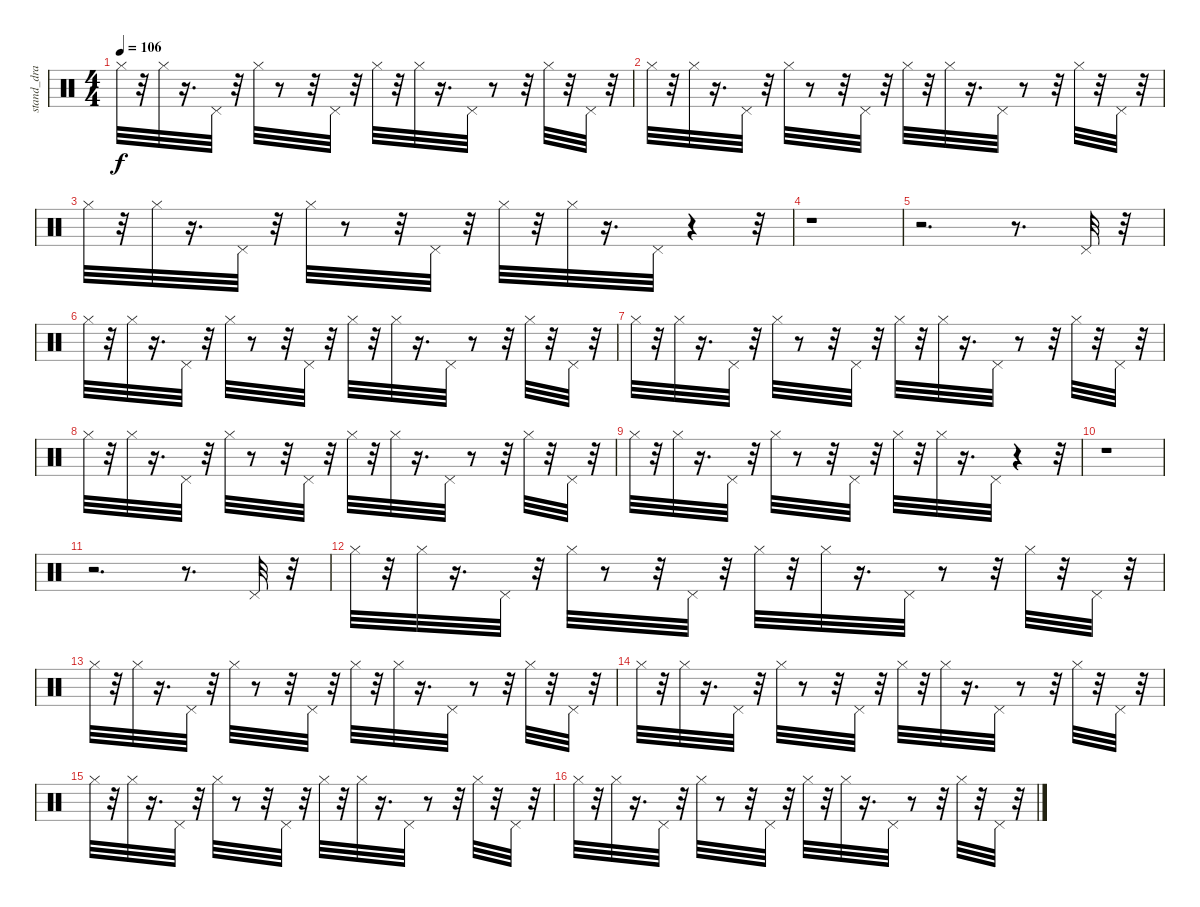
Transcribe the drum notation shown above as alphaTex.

\track ("stand_dra" "stand_dra") {instrument percussion}
\staff {score}
\articulation defaults
\ts (4 4)
\tempo 106
\clef neutral
\ks c "Hi-Hat (closed)".32{dy f}
r.32 "Hi-Hat (closed)".32 r.16{d} "Pedal Hi-Hat (hit)".32 r.32 "Hi-Hat (closed)".32 r.8 r.32 "Pedal Hi-Hat (hit)".32 r.32 "Hi-Hat (closed)".32 r.32 "Hi-Hat (closed)".32 r.16{d} "Pedal Hi-Hat (hit)".32 r.8 r.32 "Hi-Hat (closed)".32 r.32 "Pedal Hi-Hat (hit)".32 r.32 |
"Hi-Hat (closed)".32 r.32 "Hi-Hat (closed)".32 r.16{d} "Pedal Hi-Hat (hit)".32 r.32 "Hi-Hat (closed)".32 r.8 r.32 "Pedal Hi-Hat (hit)".32 r.32 "Hi-Hat (closed)".32 r.32 "Hi-Hat (closed)".32 r.16{d} "Pedal Hi-Hat (hit)".32 r.8 r.32 "Hi-Hat (closed)".32 r.32 "Pedal Hi-Hat (hit)".32 r.32 |
"Hi-Hat (closed)".32 r.32 "Hi-Hat (closed)".32 r.16{d} "Pedal Hi-Hat (hit)".32 r.32 "Hi-Hat (closed)".32 r.8 r.32 "Pedal Hi-Hat (hit)".32 r.32 "Hi-Hat (closed)".32 r.32 "Hi-Hat (closed)".32 r.16{d} "Pedal Hi-Hat (hit)".32 r.4 r.32 |
r.1 |
r.2{d} r.8{d} "Pedal Hi-Hat (hit)".32 r.32 |
"Hi-Hat (closed)".32 r.32 "Hi-Hat (closed)".32 r.16{d} "Pedal Hi-Hat (hit)".32 r.32 "Hi-Hat (closed)".32 r.8 r.32 "Pedal Hi-Hat (hit)".32 r.32 "Hi-Hat (closed)".32 r.32 "Hi-Hat (closed)".32 r.16{d} "Pedal Hi-Hat (hit)".32 r.8 r.32 "Hi-Hat (closed)".32 r.32 "Pedal Hi-Hat (hit)".32 r.32 |
"Hi-Hat (closed)".32 r.32 "Hi-Hat (closed)".32 r.16{d} "Pedal Hi-Hat (hit)".32 r.32 "Hi-Hat (closed)".32 r.8 r.32 "Pedal Hi-Hat (hit)".32 r.32 "Hi-Hat (closed)".32 r.32 "Hi-Hat (closed)".32 r.16{d} "Pedal Hi-Hat (hit)".32 r.8 r.32 "Hi-Hat (closed)".32 r.32 "Pedal Hi-Hat (hit)".32 r.32 |
"Hi-Hat (closed)".32 r.32 "Hi-Hat (closed)".32 r.16{d} "Pedal Hi-Hat (hit)".32 r.32 "Hi-Hat (closed)".32 r.8 r.32 "Pedal Hi-Hat (hit)".32 r.32 "Hi-Hat (closed)".32 r.32 "Hi-Hat (closed)".32 r.16{d} "Pedal Hi-Hat (hit)".32 r.8 r.32 "Hi-Hat (closed)".32 r.32 "Pedal Hi-Hat (hit)".32 r.32 |
"Hi-Hat (closed)".32 r.32 "Hi-Hat (closed)".32 r.16{d} "Pedal Hi-Hat (hit)".32 r.32 "Hi-Hat (closed)".32 r.8 r.32 "Pedal Hi-Hat (hit)".32 r.32 "Hi-Hat (closed)".32 r.32 "Hi-Hat (closed)".32 r.16{d} "Pedal Hi-Hat (hit)".32 r.4 r.32 |
r.1 |
r.2{d} r.8{d} "Pedal Hi-Hat (hit)".32 r.32 |
"Hi-Hat (closed)".32 r.32 "Hi-Hat (closed)".32 r.16{d} "Pedal Hi-Hat (hit)".32 r.32 "Hi-Hat (closed)".32 r.8 r.32 "Pedal Hi-Hat (hit)".32 r.32 "Hi-Hat (closed)".32 r.32 "Hi-Hat (closed)".32 r.16{d} "Pedal Hi-Hat (hit)".32 r.8 r.32 "Hi-Hat (closed)".32 r.32 "Pedal Hi-Hat (hit)".32 r.32 |
"Hi-Hat (closed)".32 r.32 "Hi-Hat (closed)".32 r.16{d} "Pedal Hi-Hat (hit)".32 r.32 "Hi-Hat (closed)".32 r.8 r.32 "Pedal Hi-Hat (hit)".32 r.32 "Hi-Hat (closed)".32 r.32 "Hi-Hat (closed)".32 r.16{d} "Pedal Hi-Hat (hit)".32 r.8 r.32 "Hi-Hat (closed)".32 r.32 "Pedal Hi-Hat (hit)".32 r.32 |
"Hi-Hat (closed)".32 r.32 "Hi-Hat (closed)".32 r.16{d} "Pedal Hi-Hat (hit)".32 r.32 "Hi-Hat (closed)".32 r.8 r.32 "Pedal Hi-Hat (hit)".32 r.32 "Hi-Hat (closed)".32 r.32 "Hi-Hat (closed)".32 r.16{d} "Pedal Hi-Hat (hit)".32 r.8 r.32 "Hi-Hat (closed)".32 r.32 "Pedal Hi-Hat (hit)".32 r.32 |
"Hi-Hat (closed)".32 r.32 "Hi-Hat (closed)".32 r.16{d} "Pedal Hi-Hat (hit)".32 r.32 "Hi-Hat (closed)".32 r.8 r.32 "Pedal Hi-Hat (hit)".32 r.32 "Hi-Hat (closed)".32 r.32 "Hi-Hat (closed)".32 r.16{d} "Pedal Hi-Hat (hit)".32 r.8 r.32 "Hi-Hat (closed)".32 r.32 "Pedal Hi-Hat (hit)".32 r.32 |
"Hi-Hat (closed)".32 r.32 "Hi-Hat (closed)".32 r.16{d} "Pedal Hi-Hat (hit)".32 r.32 "Hi-Hat (closed)".32 r.8 r.32 "Pedal Hi-Hat (hit)".32 r.32 "Hi-Hat (closed)".32 r.32 "Hi-Hat (closed)".32 r.16{d} "Pedal Hi-Hat (hit)".32 r.8 r.32 "Hi-Hat (closed)".32 r.32 "Pedal Hi-Hat (hit)".32 r.32
